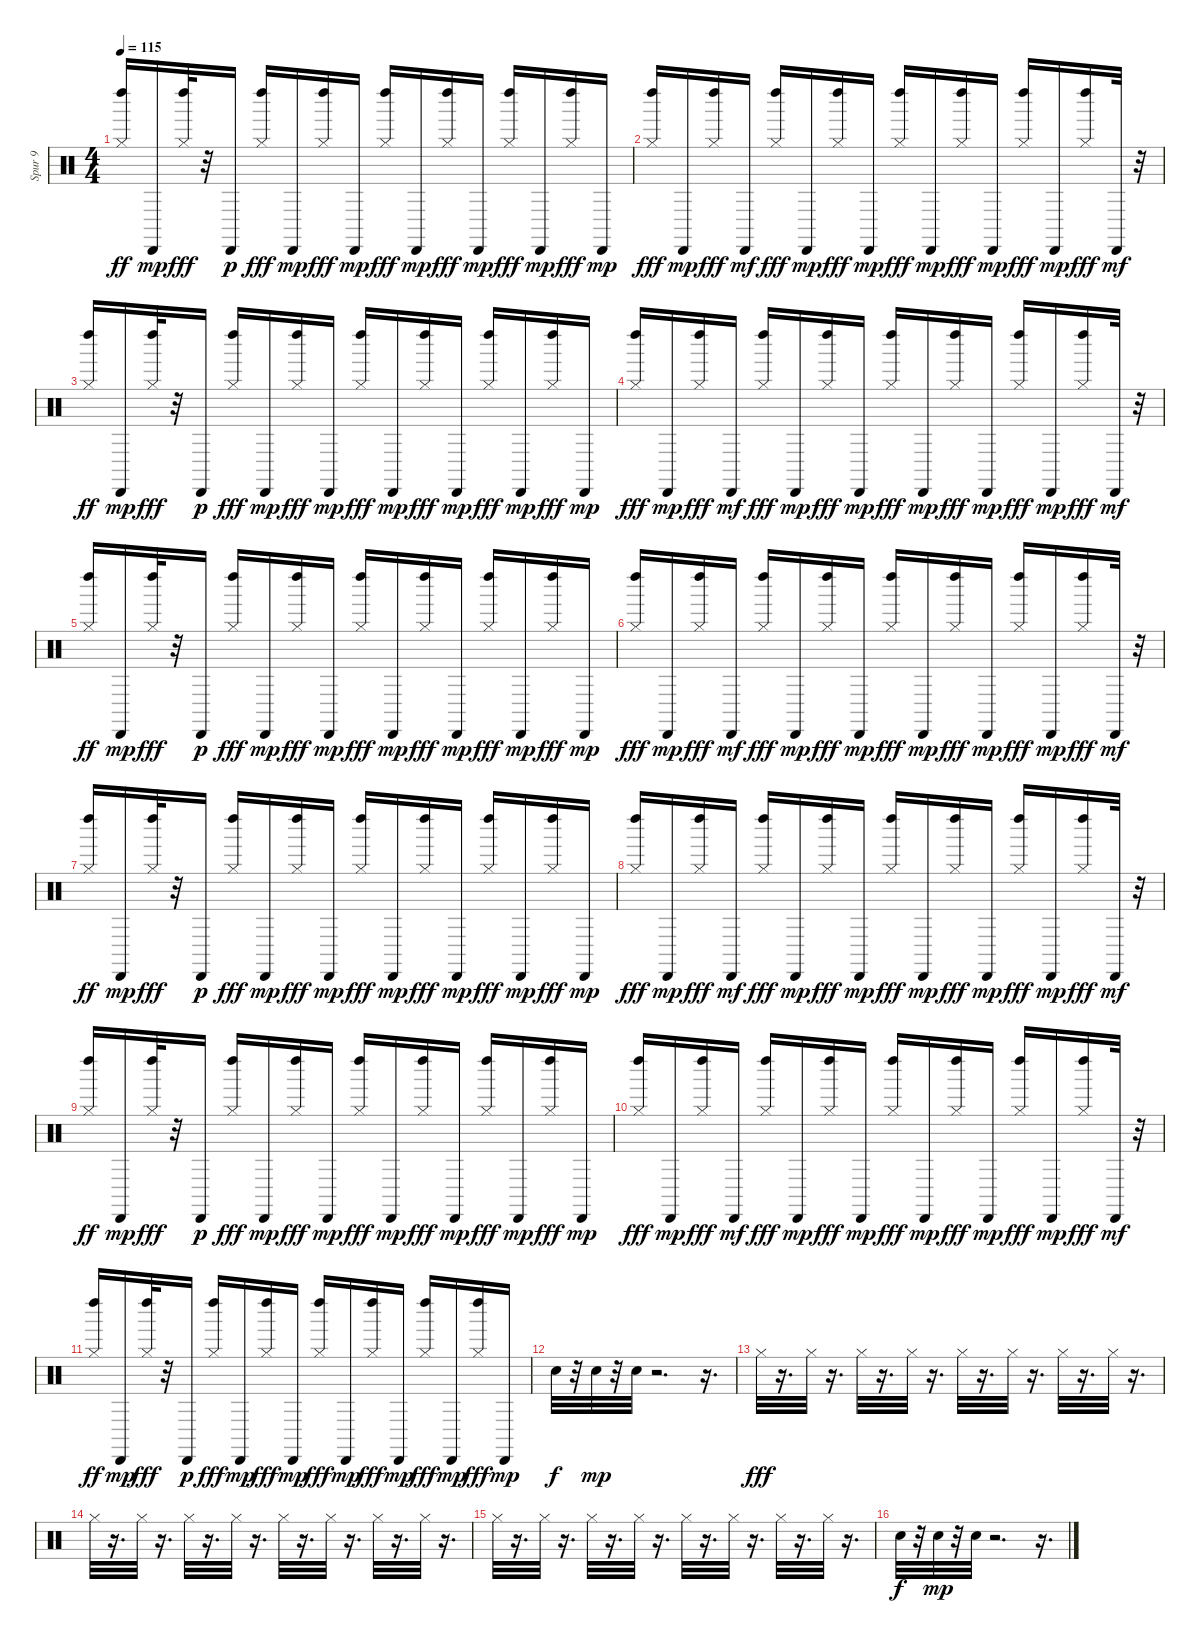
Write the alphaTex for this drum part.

\track ("Spur 9" "Spur 9") {instrument percussion}
\staff {score}
\articulation defaults
\ts (4 4)
\tempo 115
\clef neutral
\ks c
("Hi-Hat (closed)" "Left Maraca (hit)").16{dy ff} "Cabasa (hit)".16{dy mp} ("Left Maraca (hit)" "Hi-Hat (closed)").32{dy fff} r.32 "Cabasa (hit)".16{dy p} ("Left Maraca (hit)" "Hi-Hat (closed)").16{dy fff} "Cabasa (hit)".16{dy mp} ("Left Maraca (hit)" "Hi-Hat (closed)").16{dy fff} "Cabasa (hit)".16{dy mp} ("Left Maraca (hit)" "Hi-Hat (closed)").16{dy fff} "Cabasa (hit)".16{dy mp} ("Left Maraca (hit)" "Hi-Hat (closed)").16{dy fff} "Cabasa (hit)".16{dy mp} ("Left Maraca (hit)" "Hi-Hat (closed)").16{dy fff} "Cabasa (hit)".16{dy mp} ("Left Maraca (hit)" "Hi-Hat (closed)").16{dy fff} "Cabasa (hit)".16{dy mp} |
("Left Maraca (hit)" "Hi-Hat (closed)").16{dy fff} "Cabasa (hit)".16{dy mp} ("Hi-Hat (closed)" "Left Maraca (hit)").16{dy fff} "Cabasa (hit)".16{dy mf} ("Hi-Hat (closed)" "Left Maraca (hit)").16{dy fff} "Cabasa (hit)".16{dy mp} ("Hi-Hat (closed)" "Left Maraca (hit)").16{dy fff} "Cabasa (hit)".16{dy mp} ("Left Maraca (hit)" "Hi-Hat (closed)").16{dy fff} "Cabasa (hit)".16{dy mp} ("Left Maraca (hit)" "Hi-Hat (closed)").16{dy fff} "Cabasa (hit)".16{dy mp} ("Left Maraca (hit)" "Hi-Hat (closed)").16{dy fff} "Cabasa (hit)".16{dy mp} ("Left Maraca (hit)" "Hi-Hat (closed)").16{dy fff} "Cabasa (hit)".32{dy mf} r.32 |
("Hi-Hat (closed)" "Left Maraca (hit)").16{dy ff} "Cabasa (hit)".16{dy mp} ("Left Maraca (hit)" "Hi-Hat (closed)").32{dy fff} r.32 "Cabasa (hit)".16{dy p} ("Left Maraca (hit)" "Hi-Hat (closed)").16{dy fff} "Cabasa (hit)".16{dy mp} ("Left Maraca (hit)" "Hi-Hat (closed)").16{dy fff} "Cabasa (hit)".16{dy mp} ("Left Maraca (hit)" "Hi-Hat (closed)").16{dy fff} "Cabasa (hit)".16{dy mp} ("Left Maraca (hit)" "Hi-Hat (closed)").16{dy fff} "Cabasa (hit)".16{dy mp} ("Left Maraca (hit)" "Hi-Hat (closed)").16{dy fff} "Cabasa (hit)".16{dy mp} ("Left Maraca (hit)" "Hi-Hat (closed)").16{dy fff} "Cabasa (hit)".16{dy mp} |
("Left Maraca (hit)" "Hi-Hat (closed)").16{dy fff} "Cabasa (hit)".16{dy mp} ("Hi-Hat (closed)" "Left Maraca (hit)").16{dy fff} "Cabasa (hit)".16{dy mf} ("Hi-Hat (closed)" "Left Maraca (hit)").16{dy fff} "Cabasa (hit)".16{dy mp} ("Hi-Hat (closed)" "Left Maraca (hit)").16{dy fff} "Cabasa (hit)".16{dy mp} ("Left Maraca (hit)" "Hi-Hat (closed)").16{dy fff} "Cabasa (hit)".16{dy mp} ("Left Maraca (hit)" "Hi-Hat (closed)").16{dy fff} "Cabasa (hit)".16{dy mp} ("Left Maraca (hit)" "Hi-Hat (closed)").16{dy fff} "Cabasa (hit)".16{dy mp} ("Left Maraca (hit)" "Hi-Hat (closed)").16{dy fff} "Cabasa (hit)".32{dy mf} r.32 |
("Hi-Hat (closed)" "Left Maraca (hit)").16{dy ff} "Cabasa (hit)".16{dy mp} ("Left Maraca (hit)" "Hi-Hat (closed)").32{dy fff} r.32 "Cabasa (hit)".16{dy p} ("Left Maraca (hit)" "Hi-Hat (closed)").16{dy fff} "Cabasa (hit)".16{dy mp} ("Left Maraca (hit)" "Hi-Hat (closed)").16{dy fff} "Cabasa (hit)".16{dy mp} ("Left Maraca (hit)" "Hi-Hat (closed)").16{dy fff} "Cabasa (hit)".16{dy mp} ("Left Maraca (hit)" "Hi-Hat (closed)").16{dy fff} "Cabasa (hit)".16{dy mp} ("Left Maraca (hit)" "Hi-Hat (closed)").16{dy fff} "Cabasa (hit)".16{dy mp} ("Left Maraca (hit)" "Hi-Hat (closed)").16{dy fff} "Cabasa (hit)".16{dy mp} |
("Left Maraca (hit)" "Hi-Hat (closed)").16{dy fff} "Cabasa (hit)".16{dy mp} ("Hi-Hat (closed)" "Left Maraca (hit)").16{dy fff} "Cabasa (hit)".16{dy mf} ("Hi-Hat (closed)" "Left Maraca (hit)").16{dy fff} "Cabasa (hit)".16{dy mp} ("Hi-Hat (closed)" "Left Maraca (hit)").16{dy fff} "Cabasa (hit)".16{dy mp} ("Left Maraca (hit)" "Hi-Hat (closed)").16{dy fff} "Cabasa (hit)".16{dy mp} ("Left Maraca (hit)" "Hi-Hat (closed)").16{dy fff} "Cabasa (hit)".16{dy mp} ("Left Maraca (hit)" "Hi-Hat (closed)").16{dy fff} "Cabasa (hit)".16{dy mp} ("Left Maraca (hit)" "Hi-Hat (closed)").16{dy fff} "Cabasa (hit)".32{dy mf} r.32 |
("Hi-Hat (closed)" "Left Maraca (hit)").16{dy ff} "Cabasa (hit)".16{dy mp} ("Left Maraca (hit)" "Hi-Hat (closed)").32{dy fff} r.32 "Cabasa (hit)".16{dy p} ("Left Maraca (hit)" "Hi-Hat (closed)").16{dy fff} "Cabasa (hit)".16{dy mp} ("Left Maraca (hit)" "Hi-Hat (closed)").16{dy fff} "Cabasa (hit)".16{dy mp} ("Left Maraca (hit)" "Hi-Hat (closed)").16{dy fff} "Cabasa (hit)".16{dy mp} ("Left Maraca (hit)" "Hi-Hat (closed)").16{dy fff} "Cabasa (hit)".16{dy mp} ("Left Maraca (hit)" "Hi-Hat (closed)").16{dy fff} "Cabasa (hit)".16{dy mp} ("Left Maraca (hit)" "Hi-Hat (closed)").16{dy fff} "Cabasa (hit)".16{dy mp} |
("Left Maraca (hit)" "Hi-Hat (closed)").16{dy fff} "Cabasa (hit)".16{dy mp} ("Hi-Hat (closed)" "Left Maraca (hit)").16{dy fff} "Cabasa (hit)".16{dy mf} ("Hi-Hat (closed)" "Left Maraca (hit)").16{dy fff} "Cabasa (hit)".16{dy mp} ("Hi-Hat (closed)" "Left Maraca (hit)").16{dy fff} "Cabasa (hit)".16{dy mp} ("Left Maraca (hit)" "Hi-Hat (closed)").16{dy fff} "Cabasa (hit)".16{dy mp} ("Left Maraca (hit)" "Hi-Hat (closed)").16{dy fff} "Cabasa (hit)".16{dy mp} ("Left Maraca (hit)" "Hi-Hat (closed)").16{dy fff} "Cabasa (hit)".16{dy mp} ("Left Maraca (hit)" "Hi-Hat (closed)").16{dy fff} "Cabasa (hit)".32{dy mf} r.32 |
("Hi-Hat (closed)" "Left Maraca (hit)").16{dy ff} "Cabasa (hit)".16{dy mp} ("Left Maraca (hit)" "Hi-Hat (closed)").32{dy fff} r.32 "Cabasa (hit)".16{dy p} ("Left Maraca (hit)" "Hi-Hat (closed)").16{dy fff} "Cabasa (hit)".16{dy mp} ("Left Maraca (hit)" "Hi-Hat (closed)").16{dy fff} "Cabasa (hit)".16{dy mp} ("Left Maraca (hit)" "Hi-Hat (closed)").16{dy fff} "Cabasa (hit)".16{dy mp} ("Left Maraca (hit)" "Hi-Hat (closed)").16{dy fff} "Cabasa (hit)".16{dy mp} ("Left Maraca (hit)" "Hi-Hat (closed)").16{dy fff} "Cabasa (hit)".16{dy mp} ("Left Maraca (hit)" "Hi-Hat (closed)").16{dy fff} "Cabasa (hit)".16{dy mp} |
("Left Maraca (hit)" "Hi-Hat (closed)").16{dy fff} "Cabasa (hit)".16{dy mp} ("Hi-Hat (closed)" "Left Maraca (hit)").16{dy fff} "Cabasa (hit)".16{dy mf} ("Hi-Hat (closed)" "Left Maraca (hit)").16{dy fff} "Cabasa (hit)".16{dy mp} ("Hi-Hat (closed)" "Left Maraca (hit)").16{dy fff} "Cabasa (hit)".16{dy mp} ("Left Maraca (hit)" "Hi-Hat (closed)").16{dy fff} "Cabasa (hit)".16{dy mp} ("Left Maraca (hit)" "Hi-Hat (closed)").16{dy fff} "Cabasa (hit)".16{dy mp} ("Left Maraca (hit)" "Hi-Hat (closed)").16{dy fff} "Cabasa (hit)".16{dy mp} ("Left Maraca (hit)" "Hi-Hat (closed)").16{dy fff} "Cabasa (hit)".32{dy mf} r.32 |
("Hi-Hat (closed)" "Left Maraca (hit)").16{dy ff} "Cabasa (hit)".16{dy mp} ("Left Maraca (hit)" "Hi-Hat (closed)").32{dy fff} r.32 "Cabasa (hit)".16{dy p} ("Left Maraca (hit)" "Hi-Hat (closed)").16{dy fff} "Cabasa (hit)".16{dy mp} ("Left Maraca (hit)" "Hi-Hat (closed)").16{dy fff} "Cabasa (hit)".16{dy mp} ("Left Maraca (hit)" "Hi-Hat (closed)").16{dy fff} "Cabasa (hit)".16{dy mp} ("Left Maraca (hit)" "Hi-Hat (closed)").16{dy fff} "Cabasa (hit)".16{dy mp} ("Left Maraca (hit)" "Hi-Hat (closed)").16{dy fff} "Cabasa (hit)".16{dy mp} ("Left Maraca (hit)" "Hi-Hat (closed)").16{dy fff} "Cabasa (hit)".16{dy mp} |
"Electric Snare (hit)".32{dy f volume 14} r.32 "Electric Snare (hit)".32{dy mp} r.32 "Electric Snare (hit)".32 r.2{d} r.16{d} |
"Hi-Hat (closed)".32{dy fff volume 15} r.16{d} "Hi-Hat (closed)".32 r.16{d} "Hi-Hat (closed)".32 r.16{d} "Hi-Hat (closed)".32 r.16{d} "Hi-Hat (closed)".32 r.16{d} "Hi-Hat (closed)".32 r.16{d} "Hi-Hat (closed)".32 r.16{d} "Hi-Hat (closed)".32 r.16{d} |
"Hi-Hat (closed)".32 r.16{d} "Hi-Hat (closed)".32 r.16{d} "Hi-Hat (closed)".32 r.16{d} "Hi-Hat (closed)".32 r.16{d} "Hi-Hat (closed)".32 r.16{d} "Hi-Hat (closed)".32 r.16{d} "Hi-Hat (closed)".32 r.16{d} "Hi-Hat (closed)".32 r.16{d} |
"Hi-Hat (closed)".32 r.16{d} "Hi-Hat (closed)".32 r.16{d} "Hi-Hat (closed)".32 r.16{d} "Hi-Hat (closed)".32 r.16{d} "Hi-Hat (closed)".32 r.16{d} "Hi-Hat (closed)".32 r.16{d} "Hi-Hat (closed)".32 r.16{d} "Hi-Hat (closed)".32 r.16{d} |
"Electric Snare (hit)".32{dy f volume 14} r.32 "Electric Snare (hit)".32{dy mp} r.32 "Electric Snare (hit)".32 r.2{d} r.16{d}
